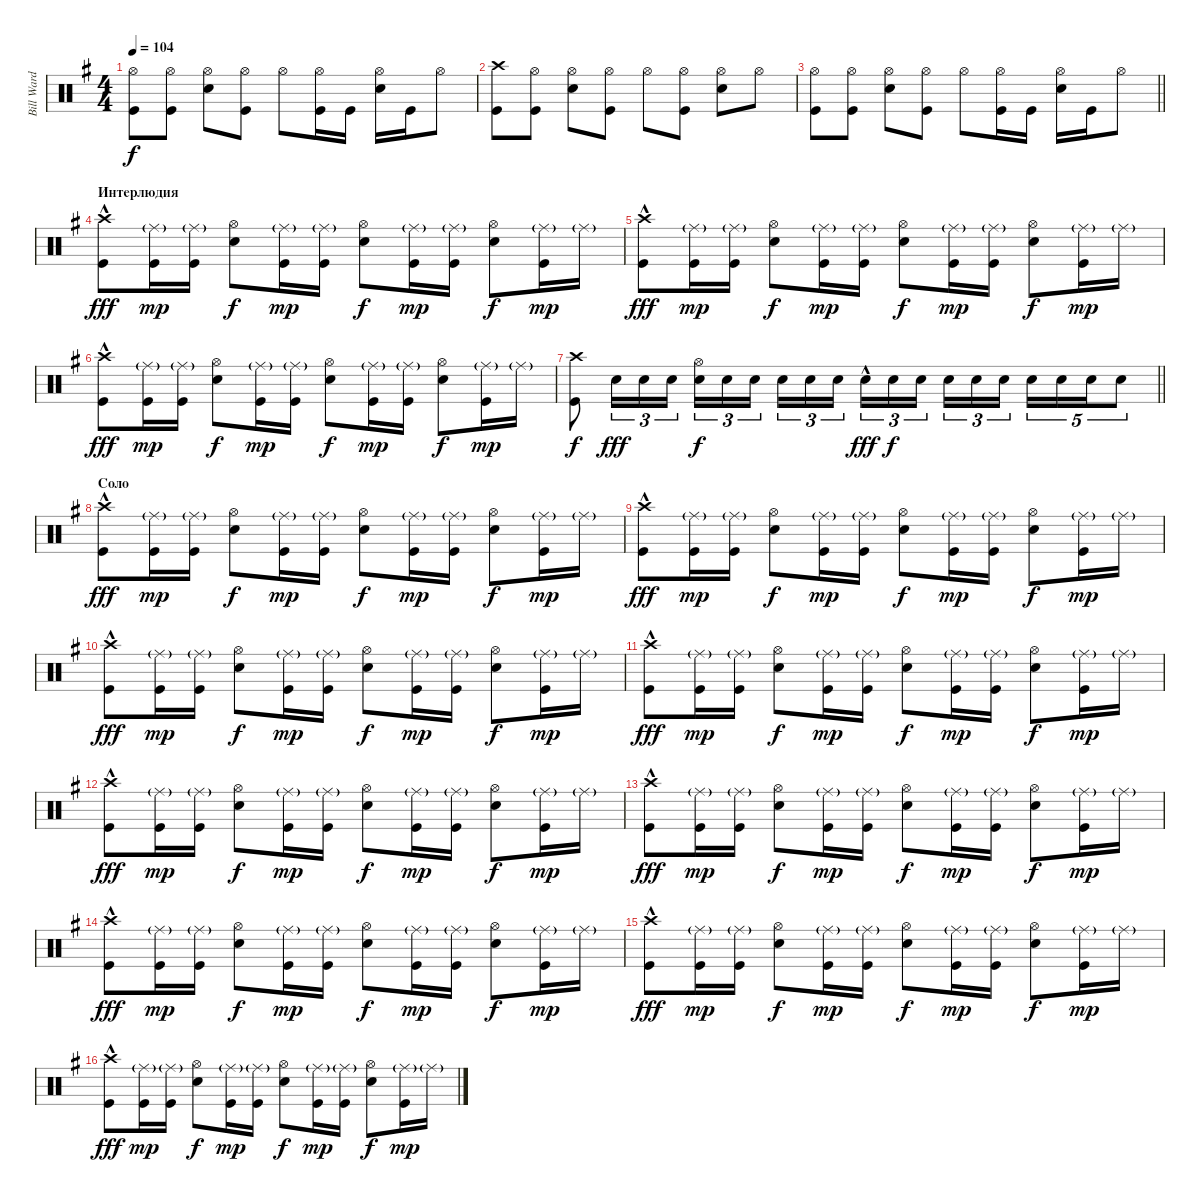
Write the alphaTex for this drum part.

\track ("Bill Ward" "Bill Ward") {instrument percussion}
\staff {score}
\articulation defaults
\ts (4 4)
\tempo 104
\clef neutral
\ks g
("Kick (hit)" "Hi-Hat (open)").8{dy f} ("Kick (hit)" "Hi-Hat (open)").8 ("Snare (hit) 2" "Hi-Hat (open)").8 ("Kick (hit)" "Hi-Hat (open)").8 "Hi-Hat (open)".8 ("Kick (hit)" "Hi-Hat (open)").16 "Kick (hit)".16 ("Snare (hit) 2" "Hi-Hat (open)").16 "Kick (hit)".16 "Hi-Hat (open)".8 |
("Crash high (hit)" "Kick (hit)").8 ("Kick (hit)" "Hi-Hat (open)").8 ("Snare (hit) 2" "Hi-Hat (open)").8 ("Kick (hit)" "Hi-Hat (open)").8 "Hi-Hat (open)".8 ("Kick (hit)" "Hi-Hat (open)").8 ("Hi-Hat (open)" "Snare (hit) 2").8 "Hi-Hat (open)".8 |
\barLineRight lightlight
("Kick (hit)" "Hi-Hat (open)").8 ("Kick (hit)" "Hi-Hat (open)").8 ("Snare (hit) 2" "Hi-Hat (open)").8 ("Kick (hit)" "Hi-Hat (open)").8 "Hi-Hat (open)".8 ("Kick (hit)" "Hi-Hat (open)").16 "Kick (hit)".16 ("Snare (hit) 2" "Hi-Hat (open)").16 "Kick (hit)".16 "Hi-Hat (open)".8 |
\section ("" "Интерлюдия")
("Kick (hit)" "Crash high (hit)"{hac}).8{dy fff} ("Kick (hit)" "Ride (middle)"{g}).16{dy mp} ("Kick (hit)" "Ride (middle)"{g}).16 ("Snare (hit) 2" "Hi-Hat (open)").8{dy f} ("Kick (hit)" "Ride (middle)"{g}).16{dy mp} ("Kick (hit)" "Ride (middle)"{g}).16 ("Snare (hit) 2" "Hi-Hat (open)").8{dy f} ("Kick (hit)" "Ride (middle)"{g}).16{dy mp} ("Kick (hit)" "Ride (middle)"{g}).16 ("Snare (hit) 2" "Hi-Hat (open)").8{dy f} ("Kick (hit)" "Ride (middle)"{g}).16{dy mp} "Ride (middle)"{g}.16 |
("Kick (hit)" "Crash high (hit)"{hac}).8{dy fff} ("Kick (hit)" "Ride (middle)"{g}).16{dy mp} ("Kick (hit)" "Ride (middle)"{g}).16 ("Snare (hit) 2" "Hi-Hat (open)").8{dy f} ("Kick (hit)" "Ride (middle)"{g}).16{dy mp} ("Kick (hit)" "Ride (middle)"{g}).16 ("Snare (hit) 2" "Hi-Hat (open)").8{dy f} ("Kick (hit)" "Ride (middle)"{g}).16{dy mp} ("Kick (hit)" "Ride (middle)"{g}).16 ("Snare (hit) 2" "Hi-Hat (open)").8{dy f} ("Kick (hit)" "Ride (middle)"{g}).16{dy mp} "Ride (middle)"{g}.16 |
("Kick (hit)" "Crash high (hit)"{hac}).8{dy fff} ("Kick (hit)" "Ride (middle)"{g}).16{dy mp} ("Kick (hit)" "Ride (middle)"{g}).16 ("Snare (hit) 2" "Hi-Hat (open)").8{dy f} ("Kick (hit)" "Ride (middle)"{g}).16{dy mp} ("Kick (hit)" "Ride (middle)"{g}).16 ("Snare (hit) 2" "Hi-Hat (open)").8{dy f} ("Kick (hit)" "Ride (middle)"{g}).16{dy mp} ("Kick (hit)" "Ride (middle)"{g}).16 ("Snare (hit) 2" "Hi-Hat (open)").8{dy f} ("Kick (hit)" "Ride (middle)"{g}).16{dy mp} "Ride (middle)"{g}.16 |
\barLineRight lightlight
("Crash high (hit)" "Kick (hit)").8{dy f} "Snare (hit) 2".16{tu (3 2) dy fff} "Snare (hit) 2".16{tu (3 2)} "Snare (hit) 2".16{tu (3 2)} ("Snare (hit) 2" "Hi-Hat (open)").16{tu (3 2) dy f} "Snare (hit) 2".16{tu (3 2)} "Snare (hit) 2".16{tu (3 2) beam splitsecondary} "Snare (hit) 2".16{tu (3 2)} "Snare (hit) 2".16{tu (3 2)} "Snare (hit) 2".16{tu (3 2)} "Snare (hit) 2"{hac}.16{tu (3 2) dy fff} "Snare (hit) 2".16{tu (3 2) dy f} "Snare (hit) 2".16{tu (3 2) beam splitsecondary} "Snare (hit) 2".16{tu (3 2)} "Snare (hit) 2".16{tu (3 2)} "Snare (hit) 2".16{tu (3 2)} "Snare (hit) 2".16{tu (5 4)} "Snare (hit) 2".16{tu (5 4)} "Snare (hit) 2".16{tu (5 4)} "Snare (hit) 2".8{tu (5 4)} |
\section ("" "Соло")
("Kick (hit)" "Crash high (hit)"{hac}).8{dy fff} ("Kick (hit)" "Ride (middle)"{g}).16{dy mp} ("Kick (hit)" "Ride (middle)"{g}).16 ("Snare (hit) 2" "Hi-Hat (open)").8{dy f} ("Kick (hit)" "Ride (middle)"{g}).16{dy mp} ("Kick (hit)" "Ride (middle)"{g}).16 ("Snare (hit) 2" "Hi-Hat (open)").8{dy f} ("Kick (hit)" "Ride (middle)"{g}).16{dy mp} ("Kick (hit)" "Ride (middle)"{g}).16 ("Snare (hit) 2" "Hi-Hat (open)").8{dy f} ("Kick (hit)" "Ride (middle)"{g}).16{dy mp} "Ride (middle)"{g}.16 |
("Kick (hit)" "Crash high (hit)"{hac}).8{dy fff} ("Kick (hit)" "Ride (middle)"{g}).16{dy mp} ("Kick (hit)" "Ride (middle)"{g}).16 ("Snare (hit) 2" "Hi-Hat (open)").8{dy f} ("Kick (hit)" "Ride (middle)"{g}).16{dy mp} ("Kick (hit)" "Ride (middle)"{g}).16 ("Snare (hit) 2" "Hi-Hat (open)").8{dy f} ("Kick (hit)" "Ride (middle)"{g}).16{dy mp} ("Kick (hit)" "Ride (middle)"{g}).16 ("Snare (hit) 2" "Hi-Hat (open)").8{dy f} ("Kick (hit)" "Ride (middle)"{g}).16{dy mp} "Ride (middle)"{g}.16 |
("Kick (hit)" "Crash high (hit)"{hac}).8{dy fff} ("Kick (hit)" "Ride (middle)"{g}).16{dy mp} ("Kick (hit)" "Ride (middle)"{g}).16 ("Snare (hit) 2" "Hi-Hat (open)").8{dy f} ("Kick (hit)" "Ride (middle)"{g}).16{dy mp} ("Kick (hit)" "Ride (middle)"{g}).16 ("Snare (hit) 2" "Hi-Hat (open)").8{dy f} ("Kick (hit)" "Ride (middle)"{g}).16{dy mp} ("Kick (hit)" "Ride (middle)"{g}).16 ("Snare (hit) 2" "Hi-Hat (open)").8{dy f} ("Kick (hit)" "Ride (middle)"{g}).16{dy mp} "Ride (middle)"{g}.16 |
("Kick (hit)" "Crash high (hit)"{hac}).8{dy fff} ("Kick (hit)" "Ride (middle)"{g}).16{dy mp} ("Kick (hit)" "Ride (middle)"{g}).16 ("Snare (hit) 2" "Hi-Hat (open)").8{dy f} ("Kick (hit)" "Ride (middle)"{g}).16{dy mp} ("Kick (hit)" "Ride (middle)"{g}).16 ("Snare (hit) 2" "Hi-Hat (open)").8{dy f} ("Kick (hit)" "Ride (middle)"{g}).16{dy mp} ("Kick (hit)" "Ride (middle)"{g}).16 ("Snare (hit) 2" "Hi-Hat (open)").8{dy f} ("Kick (hit)" "Ride (middle)"{g}).16{dy mp} "Ride (middle)"{g}.16 |
("Kick (hit)" "Crash high (hit)"{hac}).8{dy fff} ("Kick (hit)" "Ride (middle)"{g}).16{dy mp} ("Kick (hit)" "Ride (middle)"{g}).16 ("Snare (hit) 2" "Hi-Hat (open)").8{dy f} ("Kick (hit)" "Ride (middle)"{g}).16{dy mp} ("Kick (hit)" "Ride (middle)"{g}).16 ("Snare (hit) 2" "Hi-Hat (open)").8{dy f} ("Kick (hit)" "Ride (middle)"{g}).16{dy mp} ("Kick (hit)" "Ride (middle)"{g}).16 ("Snare (hit) 2" "Hi-Hat (open)").8{dy f} ("Kick (hit)" "Ride (middle)"{g}).16{dy mp} "Ride (middle)"{g}.16 |
("Kick (hit)" "Crash high (hit)"{hac}).8{dy fff} ("Kick (hit)" "Ride (middle)"{g}).16{dy mp} ("Kick (hit)" "Ride (middle)"{g}).16 ("Snare (hit) 2" "Hi-Hat (open)").8{dy f} ("Kick (hit)" "Ride (middle)"{g}).16{dy mp} ("Kick (hit)" "Ride (middle)"{g}).16 ("Snare (hit) 2" "Hi-Hat (open)").8{dy f} ("Kick (hit)" "Ride (middle)"{g}).16{dy mp} ("Kick (hit)" "Ride (middle)"{g}).16 ("Snare (hit) 2" "Hi-Hat (open)").8{dy f} ("Kick (hit)" "Ride (middle)"{g}).16{dy mp} "Ride (middle)"{g}.16 |
("Kick (hit)" "Crash high (hit)"{hac}).8{dy fff} ("Kick (hit)" "Ride (middle)"{g}).16{dy mp} ("Kick (hit)" "Ride (middle)"{g}).16 ("Snare (hit) 2" "Hi-Hat (open)").8{dy f} ("Kick (hit)" "Ride (middle)"{g}).16{dy mp} ("Kick (hit)" "Ride (middle)"{g}).16 ("Snare (hit) 2" "Hi-Hat (open)").8{dy f} ("Kick (hit)" "Ride (middle)"{g}).16{dy mp} ("Kick (hit)" "Ride (middle)"{g}).16 ("Snare (hit) 2" "Hi-Hat (open)").8{dy f} ("Kick (hit)" "Ride (middle)"{g}).16{dy mp} "Ride (middle)"{g}.16 |
("Kick (hit)" "Crash high (hit)"{hac}).8{dy fff} ("Kick (hit)" "Ride (middle)"{g}).16{dy mp} ("Kick (hit)" "Ride (middle)"{g}).16 ("Snare (hit) 2" "Hi-Hat (open)").8{dy f} ("Kick (hit)" "Ride (middle)"{g}).16{dy mp} ("Kick (hit)" "Ride (middle)"{g}).16 ("Snare (hit) 2" "Hi-Hat (open)").8{dy f} ("Kick (hit)" "Ride (middle)"{g}).16{dy mp} ("Kick (hit)" "Ride (middle)"{g}).16 ("Snare (hit) 2" "Hi-Hat (open)").8{dy f} ("Kick (hit)" "Ride (middle)"{g}).16{dy mp} "Ride (middle)"{g}.16 |
("Kick (hit)" "Crash high (hit)"{hac}).8{dy fff} ("Kick (hit)" "Ride (middle)"{g}).16{dy mp} ("Kick (hit)" "Ride (middle)"{g}).16 ("Snare (hit) 2" "Hi-Hat (open)").8{dy f} ("Kick (hit)" "Ride (middle)"{g}).16{dy mp} ("Kick (hit)" "Ride (middle)"{g}).16 ("Snare (hit) 2" "Hi-Hat (open)").8{dy f} ("Kick (hit)" "Ride (middle)"{g}).16{dy mp} ("Kick (hit)" "Ride (middle)"{g}).16 ("Snare (hit) 2" "Hi-Hat (open)").8{dy f} ("Kick (hit)" "Ride (middle)"{g}).16{dy mp} "Ride (middle)"{g}.16
